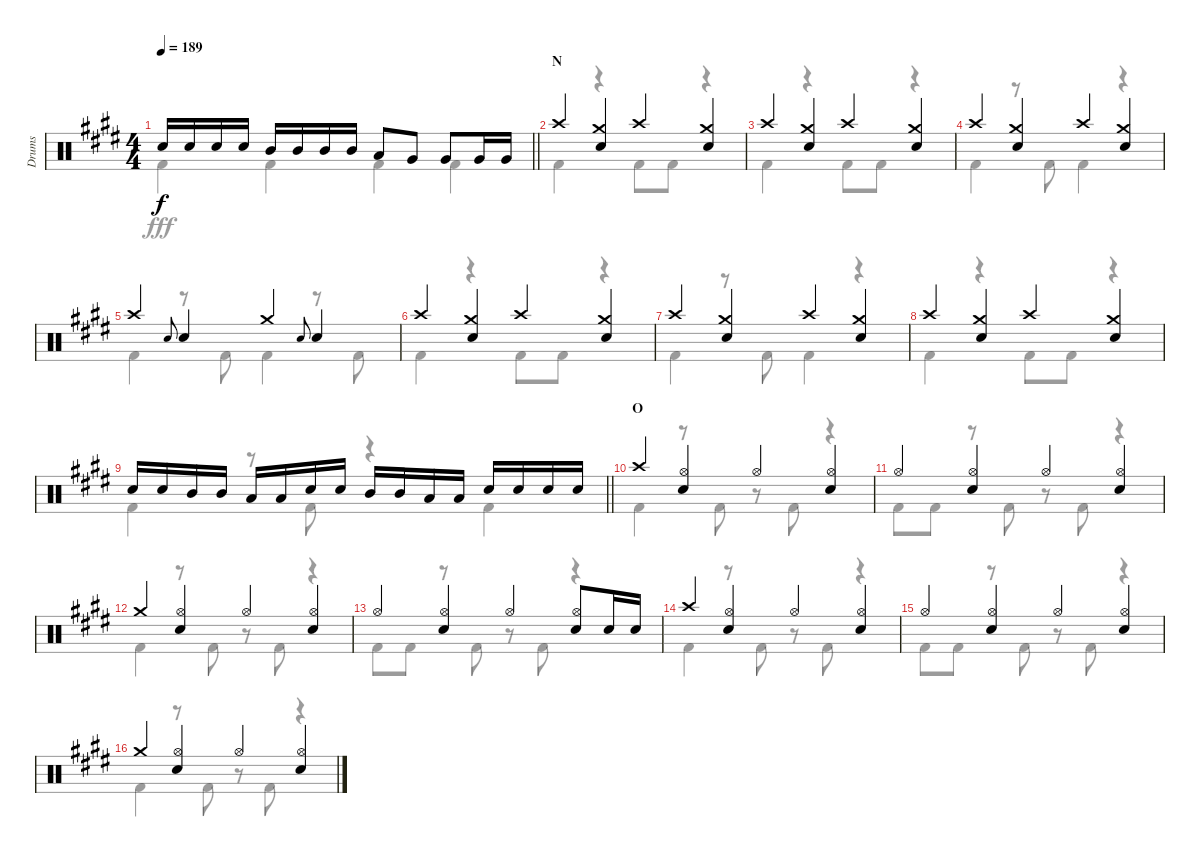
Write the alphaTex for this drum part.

\track ("Drums" "Drums") {instrument percussion}
\staff {score}
\articulation defaults
\voice
\ts (4 4)
\tempo 189
\clef neutral
\barLineRight lightlight
\ks e "Snare (hit) 2".16{dy f} "Snare (hit) 2".16 "Snare (hit) 2".16 "Snare (hit) 2".16 "Mid Tom (hit)".16 "Mid Tom (hit)".16 "Mid Tom (hit)".16 "Mid Tom (hit)".16 "Low Tom (hit)".8 "Very Low Tom (hit)".8 "Very Low Tom (hit)".8 "Very Low Tom (hit)".16 "Very Low Tom (hit)".16
|
\section ("" "N")
"Crash high (hit)".4 ("Crash medium (hit)" "Snare (hit) 2").4 "Crash high (hit)".4 ("Crash medium (hit)" "Snare (hit) 2").4 |
"Crash high (hit)".4 ("Crash medium (hit)" "Snare (hit) 2").4 "Crash high (hit)".4 ("Crash medium (hit)" "Snare (hit) 2").4 |
"Crash high (hit)".4 ("Crash medium (hit)" "Snare (hit) 2").4 "Crash high (hit)".4 ("Crash medium (hit)" "Snare (hit) 2").4 |
"Crash high (hit)".4 "Snare (hit) 2".8{gr onbeat} "Snare (hit) 2".4 "Crash medium (hit)".4 "Snare (hit) 2".8{gr onbeat} "Snare (hit) 2".4 |
"Crash high (hit)".4 ("Crash medium (hit)" "Snare (hit) 2").4 "Crash high (hit)".4 ("Crash medium (hit)" "Snare (hit) 2").4 |
"Crash high (hit)".4 ("Crash medium (hit)" "Snare (hit) 2").4 "Crash high (hit)".4 ("Crash medium (hit)" "Snare (hit) 2").4 |
"Crash high (hit)".4 ("Crash medium (hit)" "Snare (hit) 2").4 "Crash high (hit)".4 ("Crash medium (hit)" "Snare (hit) 2").4 |
\barLineRight lightlight "Snare (hit) 2".16 "Snare (hit) 2".16 "Mid Tom (hit)".16 "Mid Tom (hit)".16 "Low Tom (hit)".16 "Low Tom (hit)".16 "Snare (hit) 2".16 "Snare (hit) 2".16 "Mid Tom (hit)".16 "Mid Tom (hit)".16 "Low Tom (hit)".16 "Low Tom (hit)".16 "Snare (hit) 2".16 "Snare (hit) 2".16 "Snare (hit) 2".16 "Snare (hit) 2".16
|
\section ("" "O")
"Crash high (hit)".4 ("Hi-Hat (open)" "Snare (hit) 2").4 "Hi-Hat (open)".4 ("Hi-Hat (open)" "Snare (hit) 2").4 |
"Hi-Hat (open)".4 ("Hi-Hat (open)" "Snare (hit) 2").4 "Hi-Hat (open)".4 ("Hi-Hat (open)" "Snare (hit) 2").4 |
"Crash medium (hit)".4 ("Hi-Hat (open)" "Snare (hit) 2").4 "Hi-Hat (open)".4 ("Hi-Hat (open)" "Snare (hit) 2").4 |
"Hi-Hat (open)".4 ("Hi-Hat (open)" "Snare (hit) 2").4 "Hi-Hat (open)".4 ("Hi-Hat (open)" "Snare (hit) 2").8 "Snare (hit) 2".16 "Snare (hit) 2".16 |
"Crash high (hit)".4 ("Hi-Hat (open)" "Snare (hit) 2").4 "Hi-Hat (open)".4 ("Hi-Hat (open)" "Snare (hit) 2").4 |
"Hi-Hat (open)".4 ("Hi-Hat (open)" "Snare (hit) 2").4 "Hi-Hat (open)".4 ("Hi-Hat (open)" "Snare (hit) 2").4 |
"Crash medium (hit)".4 ("Hi-Hat (open)" "Snare (hit) 2").4 "Hi-Hat (open)".4 ("Hi-Hat (open)" "Snare (hit) 2").4
\voice
\clef neutral
\ottava regular
\simile none
\barLineRight lightlight
\ks e "Kick (hit) 2".4{dy fff} "Kick (hit) 2".4 "Kick (hit) 2".4 "Kick (hit) 2".4
|
"Kick (hit) 2".4 r.4 "Kick (hit) 2".8 "Kick (hit) 2".8 r.4 |
"Kick (hit) 2".4 r.4 "Kick (hit) 2".8 "Kick (hit) 2".8 r.4 |
"Kick (hit) 2".4 r.8 "Kick (hit) 2".8 "Kick (hit) 2".4 r.4 |
"Kick (hit) 2".4 r.8 "Kick (hit) 2".8 "Kick (hit) 2".4 r.8 "Kick (hit) 2".8 |
"Kick (hit) 2".4 r.4 "Kick (hit) 2".8 "Kick (hit) 2".8 r.4 |
"Kick (hit) 2".4 r.8 "Kick (hit) 2".8 "Kick (hit) 2".4 r.4 |
"Kick (hit) 2".4 r.4 "Kick (hit) 2".8 "Kick (hit) 2".8 r.4 |
\barLineRight lightlight "Kick (hit) 2".4
r.8 "Kick (hit) 2".8 r.4 "Kick (hit) 2".4 |
"Kick (hit) 2".4 r.8 "Kick (hit) 2".8 r.8 "Kick (hit) 2".8 r.4 |
"Kick (hit) 2".8 "Kick (hit) 2".8 r.8 "Kick (hit) 2".8 r.8 "Kick (hit) 2".8 r.4 |
"Kick (hit) 2".4 r.8 "Kick (hit) 2".8 r.8 "Kick (hit) 2".8 r.4 |
"Kick (hit) 2".8 "Kick (hit) 2".8 r.8 "Kick (hit) 2".8 r.8 "Kick (hit) 2".8 r.4 |
"Kick (hit) 2".4 r.8 "Kick (hit) 2".8 r.8 "Kick (hit) 2".8 r.4 |
"Kick (hit) 2".8 "Kick (hit) 2".8 r.8 "Kick (hit) 2".8 r.8 "Kick (hit) 2".8 r.4 |
"Kick (hit) 2".4 r.8 "Kick (hit) 2".8 r.8 "Kick (hit) 2".8 r.4
